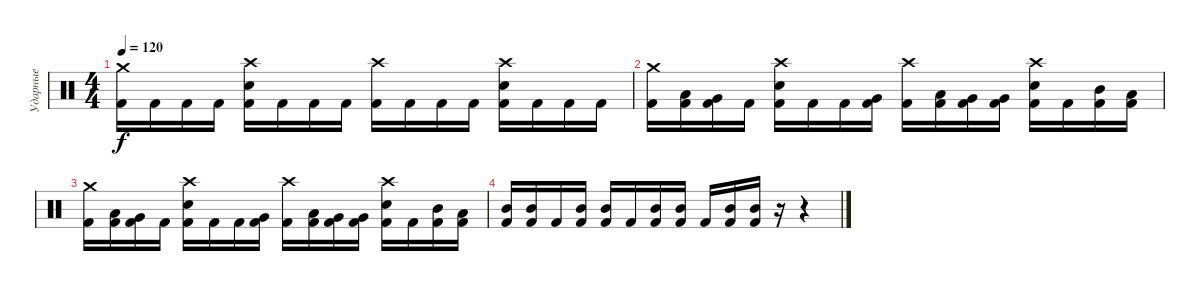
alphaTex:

\track ("Ударные" "Ударные") {instrument percussion}
\staff {score}
\articulation defaults
\ts (4 4)
\tempo 120
\clef neutral
\ks c
("Kick (hit) 2" "Crash medium (hit)").16{dy f} "Kick (hit) 2".16 "Kick (hit) 2".16 "Kick (hit) 2".16 ("Kick (hit) 2" "Electric Snare (hit)" "Crash high (hit)").16 "Kick (hit) 2".16 "Kick (hit) 2".16 "Kick (hit) 2".16 ("Kick (hit) 2" "Crash high (hit)").16 "Kick (hit) 2".16 "Kick (hit) 2".16 "Kick (hit) 2".16 ("Kick (hit) 2" "Electric Snare (hit)" "Crash high (hit)").16 "Kick (hit) 2".16 "Kick (hit) 2".16 "Kick (hit) 2".16 |
("Kick (hit) 2" "Crash medium (hit)").16 ("Kick (hit) 2" "Low Tom (hit)").16 ("Kick (hit) 2" "Very Low Tom (hit)").16 "Kick (hit) 2".16 ("Kick (hit) 2" "Electric Snare (hit)" "Crash high (hit)").16 "Kick (hit) 2".16 "Kick (hit) 2".16 ("Kick (hit) 2" "Very Low Tom (hit)").16 ("Kick (hit) 2" "Crash high (hit)").16 ("Kick (hit) 2" "Low Tom (hit)").16 ("Kick (hit) 2" "Very Low Tom (hit)").16 ("Kick (hit) 2" "Very Low Tom (hit)").16 ("Kick (hit) 2" "Electric Snare (hit)" "Crash high (hit)").16 "Kick (hit) 2".16 ("Kick (hit) 2" "Mid Tom (hit)").16 ("Kick (hit) 2" "Low Tom (hit)").16 |
("Kick (hit) 2" "Crash medium (hit)").16 ("Kick (hit) 2" "Low Tom (hit)").16 ("Kick (hit) 2" "Very Low Tom (hit)").16 "Kick (hit) 2".16 ("Kick (hit) 2" "Electric Snare (hit)" "Crash high (hit)").16 "Kick (hit) 2".16 "Kick (hit) 2".16 ("Kick (hit) 2" "Very Low Tom (hit)").16 ("Kick (hit) 2" "Crash high (hit)").16 ("Kick (hit) 2" "Low Tom (hit)").16 ("Kick (hit) 2" "Very Low Tom (hit)").16 ("Kick (hit) 2" "Very Low Tom (hit)").16 ("Kick (hit) 2" "Electric Snare (hit)" "Crash high (hit)").16 "Kick (hit) 2".16 ("Kick (hit) 2" "Mid Tom (hit)").16 ("Kick (hit) 2" "Low Tom (hit)").16 |
("Kick (hit) 2" "Mid Tom (hit)").16 ("Kick (hit) 2" "Mid Tom (hit)").16 "Kick (hit) 2".16 ("Kick (hit) 2" "Mid Tom (hit)").16 ("Kick (hit) 2" "Mid Tom (hit)").16 "Kick (hit) 2".16 ("Kick (hit) 2" "Mid Tom (hit)").16 ("Kick (hit) 2" "Mid Tom (hit)").16 "Kick (hit) 2".16 ("Kick (hit) 2" "Mid Tom (hit)").16 ("Kick (hit) 2" "Mid Tom (hit)").16 r.16 r.4
